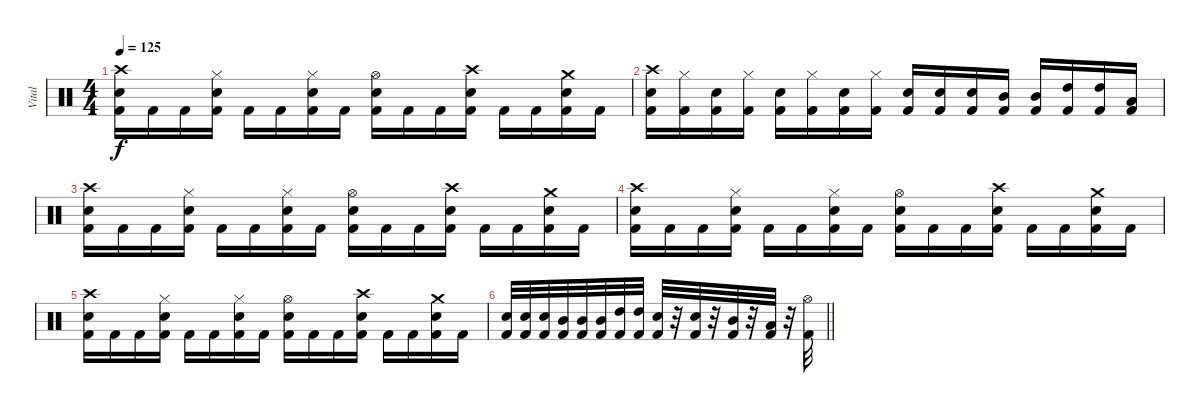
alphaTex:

\track ("Vital" "Vital") {instrument percussion}
\staff {score}
\articulation defaults
\ts (4 4)
\tempo 125
\clef neutral
\ks c
("Crash high (hit)" "Snare (hit) 2" "Kick (hit) 2").16{dy f} "Kick (hit) 2".16 "Kick (hit) 2".16 ("Hi-Hat (closed)" "Snare (hit) 2" "Kick (hit) 2").16 "Kick (hit) 2".16 "Kick (hit) 2".16 ("Hi-Hat (closed)" "Snare (hit) 2" "Kick (hit) 2").16 "Kick (hit) 2".16 ("Hi-Hat (open)" "Snare (hit) 2" "Kick (hit) 2").16 "Kick (hit) 2".16 "Kick (hit) 2".16 ("Crash high (hit)" "Snare (hit) 2" "Kick (hit) 2").16 "Kick (hit) 2".16 "Kick (hit) 2".16 ("Crash medium (hit)" "Snare (hit) 2" "Kick (hit) 2").16 "Kick (hit) 2".16 |
("Crash high (hit)" "Snare (hit) 2" "Kick (hit) 2").16 ("Hi-Hat (closed)" "Kick (hit) 2").16 ("Snare (hit) 2" "Kick (hit) 2").16 ("Hi-Hat (closed)" "Kick (hit) 2").16 ("Snare (hit) 2" "Kick (hit) 2").16 ("Hi-Hat (closed)" "Kick (hit) 2").16 ("Snare (hit) 2" "Kick (hit) 2").16 ("Hi-Hat (closed)" "Kick (hit) 2").16 ("Snare (hit) 2" "Kick (hit) 2").16 ("Snare (hit) 2" "Kick (hit) 2").16 ("Snare (hit) 2" "Kick (hit) 2").16 ("Mid Tom (hit)" "Kick (hit) 2").16 ("Mid Tom (hit)" "Kick (hit) 2").16 ("High Tom (hit)" "Kick (hit) 2").16 ("High Tom (hit)" "Kick (hit) 2").16 ("Low Tom (hit)" "Kick (hit) 2").16 |
("Crash high (hit)" "Snare (hit) 2" "Kick (hit) 2").16 "Kick (hit) 2".16 "Kick (hit) 2".16 ("Hi-Hat (closed)" "Snare (hit) 2" "Kick (hit) 2").16 "Kick (hit) 2".16 "Kick (hit) 2".16 ("Hi-Hat (closed)" "Snare (hit) 2" "Kick (hit) 2").16 "Kick (hit) 2".16 ("Hi-Hat (open)" "Snare (hit) 2" "Kick (hit) 2").16 "Kick (hit) 2".16 "Kick (hit) 2".16 ("Crash high (hit)" "Snare (hit) 2" "Kick (hit) 2").16 "Kick (hit) 2".16 "Kick (hit) 2".16 ("Crash medium (hit)" "Snare (hit) 2" "Kick (hit) 2").16 "Kick (hit) 2".16 |
("Crash high (hit)" "Snare (hit) 2" "Kick (hit) 2").16 "Kick (hit) 2".16 "Kick (hit) 2".16 ("Hi-Hat (closed)" "Snare (hit) 2" "Kick (hit) 2").16 "Kick (hit) 2".16 "Kick (hit) 2".16 ("Hi-Hat (closed)" "Snare (hit) 2" "Kick (hit) 2").16 "Kick (hit) 2".16 ("Hi-Hat (open)" "Snare (hit) 2" "Kick (hit) 2").16 "Kick (hit) 2".16 "Kick (hit) 2".16 ("Crash high (hit)" "Snare (hit) 2" "Kick (hit) 2").16 "Kick (hit) 2".16 "Kick (hit) 2".16 ("Crash medium (hit)" "Snare (hit) 2" "Kick (hit) 2").16 "Kick (hit) 2".16 |
("Crash high (hit)" "Snare (hit) 2" "Kick (hit) 2").16 "Kick (hit) 2".16 "Kick (hit) 2".16 ("Hi-Hat (closed)" "Snare (hit) 2" "Kick (hit) 2").16 "Kick (hit) 2".16 "Kick (hit) 2".16 ("Hi-Hat (closed)" "Snare (hit) 2" "Kick (hit) 2").16 "Kick (hit) 2".16 ("Hi-Hat (open)" "Snare (hit) 2" "Kick (hit) 2").16 "Kick (hit) 2".16 "Kick (hit) 2".16 ("Crash high (hit)" "Snare (hit) 2" "Kick (hit) 2").16 "Kick (hit) 2".16 "Kick (hit) 2".16 ("Crash medium (hit)" "Snare (hit) 2" "Kick (hit) 2").16 "Kick (hit) 2".16 |
\barLineRight lightlight
("Snare (hit) 2" "Kick (hit) 2").32 ("Snare (hit) 2" "Kick (hit) 2").32 ("Snare (hit) 2" "Kick (hit) 2").32 ("Mid Tom (hit)" "Kick (hit) 2").32 ("Mid Tom (hit)" "Kick (hit) 2").32 ("Mid Tom (hit)" "Kick (hit) 2").32 ("High Tom (hit)" "Kick (hit) 2").32 ("High Tom (hit)" "Kick (hit) 2").32 ("Snare (hit) 2" "Kick (hit) 2").32 r.32 ("Snare (hit) 2" "Kick (hit) 2").32 r.32 ("Mid Tom (hit)" "Kick (hit) 2").32 r.32 ("Low Tom (hit)" "Kick (hit) 2").32 r.32 ("Hi-Hat (open)" "Kick (hit) 2").32
